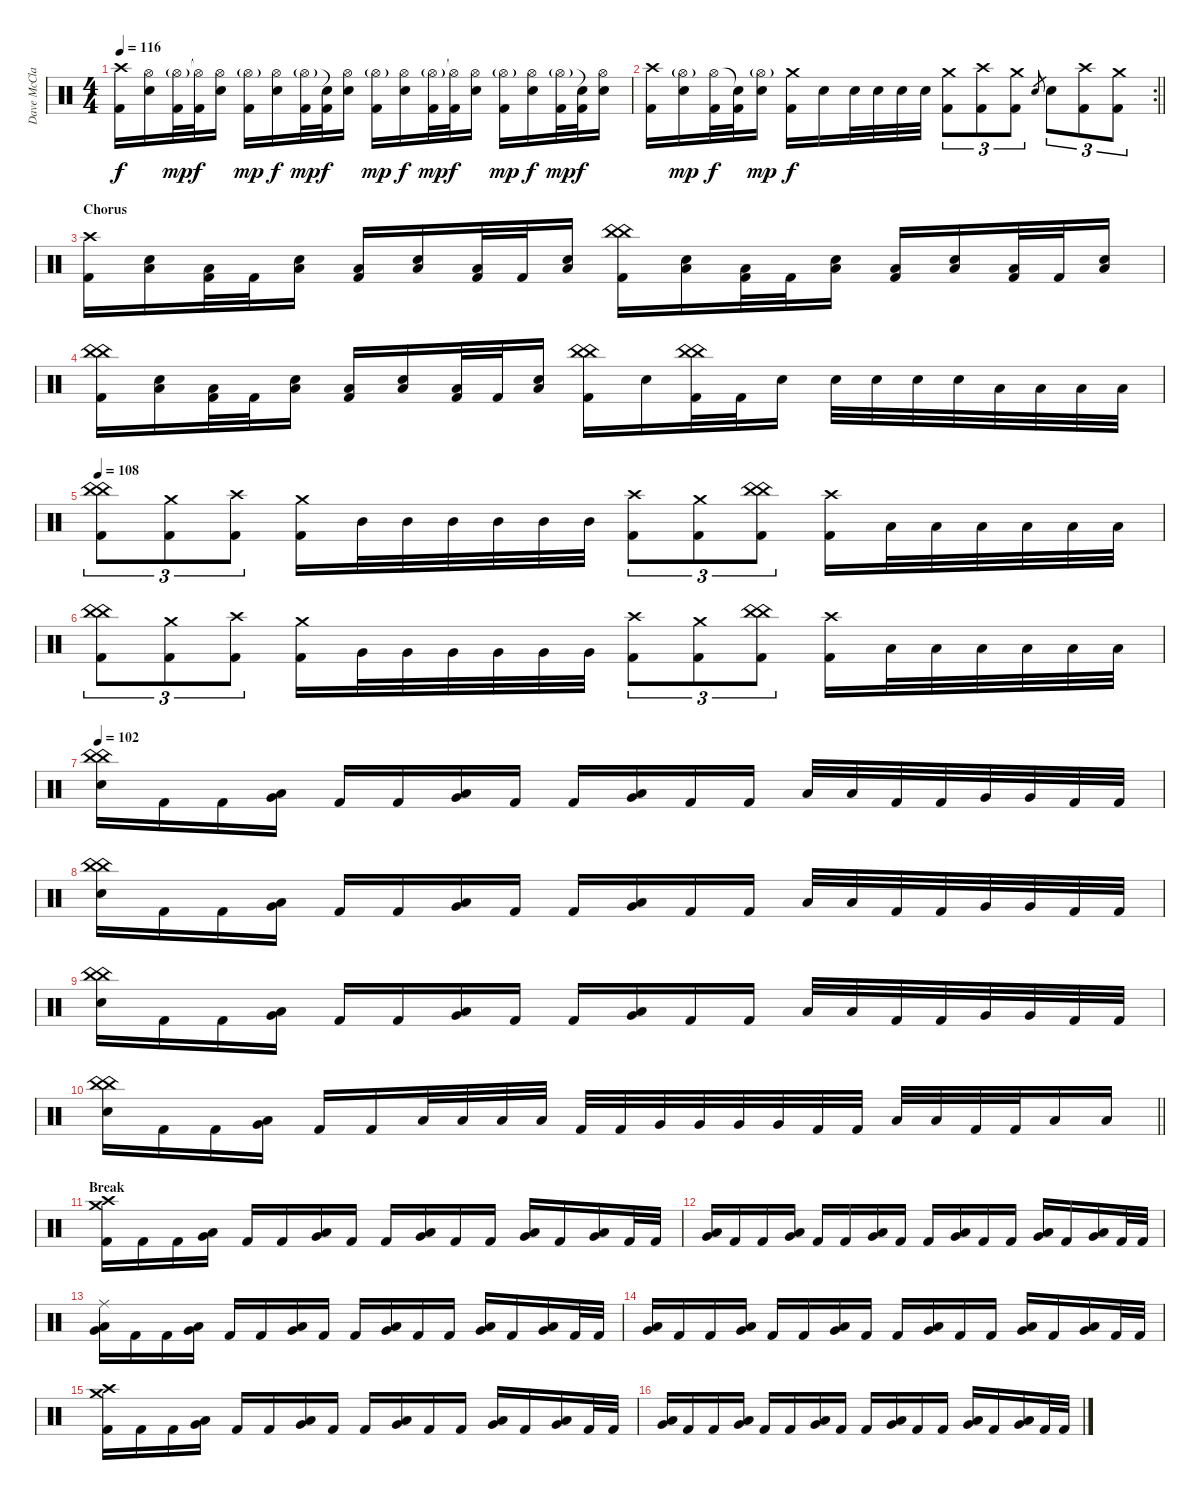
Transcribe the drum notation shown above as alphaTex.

\track ("Dave McClain (drums)" "Dave McCla") {instrument percussion}
\staff {score}
\articulation defaults
\ts (4 4)
\tempo 116
\clef neutral
\ks c
("Crash high (hit)" "Kick (hit) 2").16{dy f} ("Hi-Hat (open)" "Electric Snare (hit)").16 ("Hi-Hat (open)"{g} "Kick (hit) 2").32{dy mp} ("Hi-Hat (open)"{t} "Kick (hit) 2").32{dy f} ("Hi-Hat (open)" "Electric Snare (hit)").16 ("Hi-Hat (open)"{g} "Kick (hit) 2").16{dy mp} ("Hi-Hat (open)" "Electric Snare (hit)").16{dy f} ("Hi-Hat (open)"{g} "Kick (hit) 2").32{dy mp} ("Snare (hit)"{t} "Kick (hit) 2").32{dy f} ("Hi-Hat (open)" "Electric Snare (hit)").16 ("Hi-Hat (open)"{g} "Kick (hit) 2").16{dy mp} ("Hi-Hat (open)" "Electric Snare (hit)").16{dy f} ("Hi-Hat (open)"{g} "Kick (hit) 2").32{dy mp} ("Hi-Hat (open)"{t} "Kick (hit) 2").32{dy f} ("Hi-Hat (open)" "Electric Snare (hit)").16 ("Hi-Hat (open)"{g} "Kick (hit) 2").16{dy mp} ("Hi-Hat (open)" "Electric Snare (hit)").16{dy f} ("Hi-Hat (open)"{g} "Kick (hit) 2").32{dy mp} ("Snare (hit)"{t} "Kick (hit) 2").32{dy f} ("Hi-Hat (open)" "Electric Snare (hit)").16 |
\rc 2
\barLineRight lightlight
("Crash high (hit)" "Kick (hit) 2").16 ("Hi-Hat (open)"{g} "Electric Snare (hit)").16{dy mp} ("Hi-Hat (open)" "Kick (hit) 2").32{dy f} ("Snare (hit)"{t} "Kick (hit) 2").32 ("Hi-Hat (open)"{g} "Electric Snare (hit)").16{dy mp} ("Crash medium (hit)" "Kick (hit) 2").16{dy f} "Electric Snare (hit)".16 "Electric Snare (hit)".32 "Electric Snare (hit)".32 "Electric Snare (hit)".32 "Electric Snare (hit)".32 ("Crash medium (hit)" "Kick (hit) 2").8{tu (3 2)} ("Crash high (hit)" "Kick (hit) 2").8{tu (3 2)} ("Crash medium (hit)" "Kick (hit) 2").8{tu (3 2)} "Electric Snare (hit)".8{gr} "Electric Snare (hit)".8{tu (3 2)} ("Crash high (hit)" "Kick (hit) 2").8{tu (3 2)} ("Crash medium (hit)" "Kick (hit) 2").8{tu (3 2)} |
\section ("" "Chorus")
("Crash high (hit)" "Kick (hit) 2").16 ("Electric Snare (hit)" "Low Floor Tom (hit)").16 ("Low Floor Tom (hit)" "Kick (hit) 2").32 "Kick (hit) 2".32 ("Electric Snare (hit)" "Low Floor Tom (hit)").16 ("Low Floor Tom (hit)" "Kick (hit) 2").16 ("Electric Snare (hit)" "Low Floor Tom (hit)").16 ("Low Floor Tom (hit)" "Kick (hit) 2").32 "Kick (hit) 2".32 ("Electric Snare (hit)" "Low Floor Tom (hit)").16 ("China (hit)" "China (hit)" "Kick (hit) 2").16 ("Electric Snare (hit)" "Low Floor Tom (hit)").16 ("Low Floor Tom (hit)" "Kick (hit) 2").32 "Kick (hit) 2".32 ("Electric Snare (hit)" "Low Floor Tom (hit)").16 ("Low Floor Tom (hit)" "Kick (hit) 2").16 ("Electric Snare (hit)" "Low Floor Tom (hit)").16 ("Low Floor Tom (hit)" "Kick (hit) 2").32 "Kick (hit) 2".32 ("Electric Snare (hit)" "Low Floor Tom (hit)").16 |
("China (hit)" "China (hit)" "Kick (hit) 2").16 ("Electric Snare (hit)" "Low Floor Tom (hit)").16 ("Low Floor Tom (hit)" "Kick (hit) 2").32 "Kick (hit) 2".32 ("Electric Snare (hit)" "Low Floor Tom (hit)").16 ("Low Floor Tom (hit)" "Kick (hit) 2").16 ("Electric Snare (hit)" "Low Floor Tom (hit)").16 ("Low Floor Tom (hit)" "Kick (hit) 2").32 "Kick (hit) 2".32 ("Electric Snare (hit)" "Low Floor Tom (hit)").16 ("China (hit)" "China (hit)" "Kick (hit) 2").16 "Electric Snare (hit)".16 ("China (hit)" "China (hit)" "Kick (hit) 2").32 "Kick (hit) 2".32 "Electric Snare (hit)".16 "Electric Snare (hit)".32 "Electric Snare (hit)".32 "Electric Snare (hit)".32 "Electric Snare (hit)".32 "Low Tom (hit)".32 "Low Tom (hit)".32 "Low Tom (hit)".32 "Low Tom (hit)".32 |
\tempo 106
\tempo 108
("China (hit)" "China (hit)" "Kick (hit) 2").8{tu (3 2)} ("Crash medium (hit)" "Kick (hit) 2").8{tu (3 2)} ("Crash high (hit)" "Kick (hit) 2").8{tu (3 2)} ("Crash medium (hit)" "Kick (hit) 2").16 "Mid Tom (hit)".32 "Mid Tom (hit)".32 "Mid Tom (hit)".32 "Mid Tom (hit)".32 "Mid Tom (hit)".32 "Mid Tom (hit)".32 ("Crash high (hit)" "Kick (hit) 2").8{tu (3 2)} ("Crash medium (hit)" "Kick (hit) 2").8{tu (3 2)} ("China (hit)" "China (hit)" "Kick (hit) 2").8{tu (3 2)} ("Crash high (hit)" "Kick (hit) 2").16 "Low Tom (hit)".32 "Low Tom (hit)".32 "Low Tom (hit)".32 "Low Tom (hit)".32 "Low Tom (hit)".32 "Low Tom (hit)".32 |
("China (hit)" "China (hit)" "Kick (hit) 2").8{tu (3 2)} ("Crash medium (hit)" "Kick (hit) 2").8{tu (3 2)} ("Crash high (hit)" "Kick (hit) 2").8{tu (3 2)} ("Crash medium (hit)" "Kick (hit) 2").16 "Very Low Tom (hit)".32 "Very Low Tom (hit)".32 "Very Low Tom (hit)".32 "Very Low Tom (hit)".32 "Very Low Tom (hit)".32 "Very Low Tom (hit)".32 ("Crash high (hit)" "Kick (hit) 2").8{tu (3 2)} ("Crash medium (hit)" "Kick (hit) 2").8{tu (3 2)} ("China (hit)" "China (hit)" "Kick (hit) 2").8{tu (3 2)} ("Crash high (hit)" "Kick (hit) 2").16 "Low Floor Tom (hit)".32 "Low Floor Tom (hit)".32 "Low Floor Tom (hit)".32 "Low Floor Tom (hit)".32 "Low Floor Tom (hit)".32 "Low Floor Tom (hit)".32 |
\tempo 102
("China (hit)" "China (hit)" "Electric Snare (hit)").16 "Kick (hit) 2".16 "Kick (hit) 2".16 ("Very Low Tom (hit)" "Low Floor Tom (hit)").16 "Kick (hit) 2".16 "Kick (hit) 2".16 ("Very Low Tom (hit)" "Low Floor Tom (hit)").16 "Kick (hit) 2".16 "Kick (hit) 2".16 ("Very Low Tom (hit)" "Low Floor Tom (hit)").16 "Kick (hit) 2".16 "Kick (hit) 2".16 "Low Tom (hit)".32 "Low Tom (hit)".32 "Kick (hit) 2".32 "Kick (hit) 2".32 "Very Low Tom (hit)".32 "Very Low Tom (hit)".32 "Kick (hit) 2".32 "Kick (hit) 2".32 |
("China (hit)" "China (hit)" "Electric Snare (hit)").16 "Kick (hit) 2".16 "Kick (hit) 2".16 ("Very Low Tom (hit)" "Low Floor Tom (hit)").16 "Kick (hit) 2".16 "Kick (hit) 2".16 ("Very Low Tom (hit)" "Low Floor Tom (hit)").16 "Kick (hit) 2".16 "Kick (hit) 2".16 ("Very Low Tom (hit)" "Low Floor Tom (hit)").16 "Kick (hit) 2".16 "Kick (hit) 2".16 "Low Tom (hit)".32 "Low Tom (hit)".32 "Kick (hit) 2".32 "Kick (hit) 2".32 "Very Low Tom (hit)".32 "Very Low Tom (hit)".32 "Kick (hit) 2".32 "Kick (hit) 2".32 |
("China (hit)" "China (hit)" "Electric Snare (hit)").16 "Kick (hit) 2".16 "Kick (hit) 2".16 ("Very Low Tom (hit)" "Low Floor Tom (hit)").16 "Kick (hit) 2".16 "Kick (hit) 2".16 ("Very Low Tom (hit)" "Low Floor Tom (hit)").16 "Kick (hit) 2".16 "Kick (hit) 2".16 ("Very Low Tom (hit)" "Low Floor Tom (hit)").16 "Kick (hit) 2".16 "Kick (hit) 2".16 "Low Tom (hit)".32 "Low Tom (hit)".32 "Kick (hit) 2".32 "Kick (hit) 2".32 "Very Low Tom (hit)".32 "Very Low Tom (hit)".32 "Kick (hit) 2".32 "Kick (hit) 2".32 |
\barLineRight lightlight
("China (hit)" "China (hit)" "Electric Snare (hit)").16 "Kick (hit) 2".16 "Kick (hit) 2".16 ("Very Low Tom (hit)" "Low Floor Tom (hit)").16 "Kick (hit) 2".16 "Kick (hit) 2".16 "Low Tom (hit)".32 "Low Tom (hit)".32 "Low Tom (hit)".32 "Low Tom (hit)".32 "Kick (hit) 2".32 "Kick (hit) 2".32 "Very Low Tom (hit)".32 "Very Low Tom (hit)".32 "Very Low Tom (hit)".32 "Very Low Tom (hit)".32 "Kick (hit) 2".32 "Kick (hit) 2".32 "Low Floor Tom (hit)".32 "Low Floor Tom (hit)".32 "Kick (hit) 2".32 "Kick (hit) 2".32 "Low Floor Tom (hit)".16 "Low Floor Tom (hit)".16 |
\section ("" "Break")
("Crash high (hit)" "Crash medium (hit)" "Kick (hit) 2").16 "Kick (hit) 2".16 "Kick (hit) 2".16 ("Very Low Tom (hit)" "Low Floor Tom (hit)").16 "Kick (hit) 2".16 "Kick (hit) 2".16 ("Very Low Tom (hit)" "Low Floor Tom (hit)").16 "Kick (hit) 2".16 "Kick (hit) 2".16 ("Very Low Tom (hit)" "Low Floor Tom (hit)").16 "Kick (hit) 2".16 "Kick (hit) 2".16 ("Very Low Tom (hit)" "Low Floor Tom (hit)").16 "Kick (hit) 2".16 ("Very Low Tom (hit)" "Low Floor Tom (hit)").16 "Kick (hit) 2".32 "Kick (hit) 2".32 |
("Very Low Tom (hit)" "Low Floor Tom (hit)").16 "Kick (hit) 2".16 "Kick (hit) 2".16 ("Very Low Tom (hit)" "Low Floor Tom (hit)").16 "Kick (hit) 2".16 "Kick (hit) 2".16 ("Very Low Tom (hit)" "Low Floor Tom (hit)").16 "Kick (hit) 2".16 "Kick (hit) 2".16 ("Very Low Tom (hit)" "Low Floor Tom (hit)").16 "Kick (hit) 2".16 "Kick (hit) 2".16 ("Very Low Tom (hit)" "Low Floor Tom (hit)").16 "Kick (hit) 2".16 ("Very Low Tom (hit)" "Low Floor Tom (hit)").16 "Kick (hit) 2".32 "Kick (hit) 2".32 |
("Ride (middle)" "Very Low Tom (hit)" "Low Floor Tom (hit)").16 "Kick (hit) 2".16 "Kick (hit) 2".16 ("Very Low Tom (hit)" "Low Floor Tom (hit)").16 "Kick (hit) 2".16 "Kick (hit) 2".16 ("Very Low Tom (hit)" "Low Floor Tom (hit)").16 "Kick (hit) 2".16 "Kick (hit) 2".16 ("Very Low Tom (hit)" "Low Floor Tom (hit)").16 "Kick (hit) 2".16 "Kick (hit) 2".16 ("Very Low Tom (hit)" "Low Floor Tom (hit)").16 "Kick (hit) 2".16 ("Very Low Tom (hit)" "Low Floor Tom (hit)").16 "Kick (hit) 2".32 "Kick (hit) 2".32 |
("Very Low Tom (hit)" "Low Floor Tom (hit)").16 "Kick (hit) 2".16 "Kick (hit) 2".16 ("Very Low Tom (hit)" "Low Floor Tom (hit)").16 "Kick (hit) 2".16 "Kick (hit) 2".16 ("Very Low Tom (hit)" "Low Floor Tom (hit)").16 "Kick (hit) 2".16 "Kick (hit) 2".16 ("Very Low Tom (hit)" "Low Floor Tom (hit)").16 "Kick (hit) 2".16 "Kick (hit) 2".16 ("Very Low Tom (hit)" "Low Floor Tom (hit)").16 "Kick (hit) 2".16 ("Very Low Tom (hit)" "Low Floor Tom (hit)").16 "Kick (hit) 2".32 "Kick (hit) 2".32 |
("Crash high (hit)" "Crash medium (hit)" "Kick (hit) 2").16 "Kick (hit) 2".16 "Kick (hit) 2".16 ("Very Low Tom (hit)" "Low Floor Tom (hit)").16 "Kick (hit) 2".16 "Kick (hit) 2".16 ("Very Low Tom (hit)" "Low Floor Tom (hit)").16 "Kick (hit) 2".16 "Kick (hit) 2".16 ("Very Low Tom (hit)" "Low Floor Tom (hit)").16 "Kick (hit) 2".16 "Kick (hit) 2".16 ("Very Low Tom (hit)" "Low Floor Tom (hit)").16 "Kick (hit) 2".16 ("Very Low Tom (hit)" "Low Floor Tom (hit)").16 "Kick (hit) 2".32 "Kick (hit) 2".32 |
("Very Low Tom (hit)" "Low Floor Tom (hit)").16 "Kick (hit) 2".16 "Kick (hit) 2".16 ("Very Low Tom (hit)" "Low Floor Tom (hit)").16 "Kick (hit) 2".16 "Kick (hit) 2".16 ("Very Low Tom (hit)" "Low Floor Tom (hit)").16 "Kick (hit) 2".16 "Kick (hit) 2".16 ("Very Low Tom (hit)" "Low Floor Tom (hit)").16 "Kick (hit) 2".16 "Kick (hit) 2".16 ("Very Low Tom (hit)" "Low Floor Tom (hit)").16 "Kick (hit) 2".16 ("Very Low Tom (hit)" "Low Floor Tom (hit)").16 "Kick (hit) 2".32 "Kick (hit) 2".32
